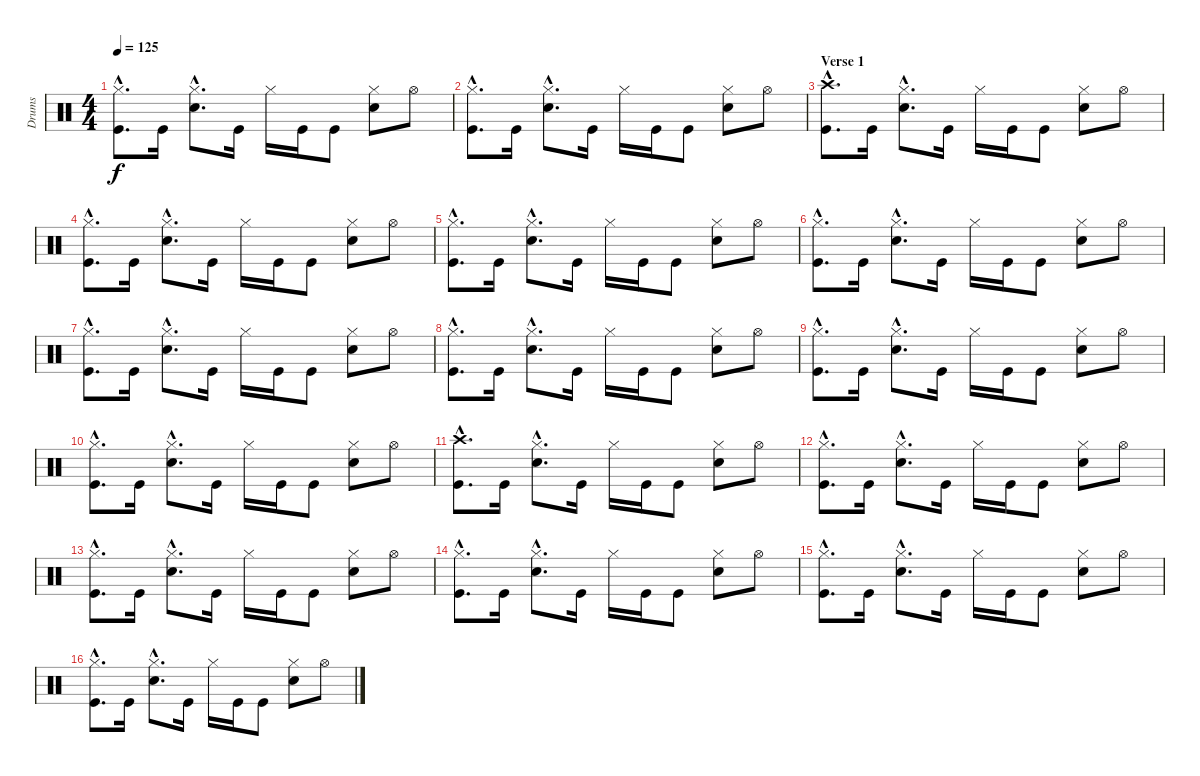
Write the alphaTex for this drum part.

\track ("Drums" "Drums") {instrument percussion}
\staff {score}
\articulation defaults
\ts (4 4)
\tempo 125
\clef neutral
\ks c
("Hi-Hat (closed)"{hac} "Kick (hit)"{hac}).8{d dy f} "Kick (hit)".16 ("Hi-Hat (closed)"{hac} "Electric Snare (hit)"{hac}).8{d} "Kick (hit)".16 "Hi-Hat (closed)".16 "Kick (hit)".16 "Kick (hit)".8 ("Hi-Hat (closed)" "Electric Snare (hit)").8 "Hi-Hat (open)".8 |
("Hi-Hat (closed)"{hac} "Kick (hit)"{hac}).8{d} "Kick (hit)".16 ("Hi-Hat (closed)"{hac} "Electric Snare (hit)"{hac}).8{d} "Kick (hit)".16 "Hi-Hat (closed)".16 "Kick (hit)".16 "Kick (hit)".8 ("Hi-Hat (closed)" "Electric Snare (hit)").8 "Hi-Hat (open)".8 |
\section ("" "Verse 1")
("Crash high (hit)"{hac} "Kick (hit)"{hac}).8{d} "Kick (hit)".16 ("Hi-Hat (closed)"{hac} "Electric Snare (hit)"{hac}).8{d} "Kick (hit)".16 "Hi-Hat (closed)".16 "Kick (hit)".16 "Kick (hit)".8 ("Hi-Hat (closed)" "Electric Snare (hit)").8 "Hi-Hat (open)".8 |
("Hi-Hat (closed)"{hac} "Kick (hit)"{hac}).8{d} "Kick (hit)".16 ("Hi-Hat (closed)"{hac} "Electric Snare (hit)"{hac}).8{d} "Kick (hit)".16 "Hi-Hat (closed)".16 "Kick (hit)".16 "Kick (hit)".8 ("Hi-Hat (closed)" "Electric Snare (hit)").8 "Hi-Hat (open)".8 |
("Hi-Hat (closed)"{hac} "Kick (hit)"{hac}).8{d} "Kick (hit)".16 ("Hi-Hat (closed)"{hac} "Electric Snare (hit)"{hac}).8{d} "Kick (hit)".16 "Hi-Hat (closed)".16 "Kick (hit)".16 "Kick (hit)".8 ("Hi-Hat (closed)" "Electric Snare (hit)").8 "Hi-Hat (open)".8 |
("Hi-Hat (closed)"{hac} "Kick (hit)"{hac}).8{d} "Kick (hit)".16 ("Hi-Hat (closed)"{hac} "Electric Snare (hit)"{hac}).8{d} "Kick (hit)".16 "Hi-Hat (closed)".16 "Kick (hit)".16 "Kick (hit)".8 ("Hi-Hat (closed)" "Electric Snare (hit)").8 "Hi-Hat (open)".8 |
("Hi-Hat (closed)"{hac} "Kick (hit)"{hac}).8{d} "Kick (hit)".16 ("Hi-Hat (closed)"{hac} "Electric Snare (hit)"{hac}).8{d} "Kick (hit)".16 "Hi-Hat (closed)".16 "Kick (hit)".16 "Kick (hit)".8 ("Hi-Hat (closed)" "Electric Snare (hit)").8 "Hi-Hat (open)".8 |
("Hi-Hat (closed)"{hac} "Kick (hit)"{hac}).8{d} "Kick (hit)".16 ("Hi-Hat (closed)"{hac} "Electric Snare (hit)"{hac}).8{d} "Kick (hit)".16 "Hi-Hat (closed)".16 "Kick (hit)".16 "Kick (hit)".8 ("Hi-Hat (closed)" "Electric Snare (hit)").8 "Hi-Hat (open)".8 |
("Hi-Hat (closed)"{hac} "Kick (hit)"{hac}).8{d} "Kick (hit)".16 ("Hi-Hat (closed)"{hac} "Electric Snare (hit)"{hac}).8{d} "Kick (hit)".16 "Hi-Hat (closed)".16 "Kick (hit)".16 "Kick (hit)".8 ("Hi-Hat (closed)" "Electric Snare (hit)").8 "Hi-Hat (open)".8 |
("Hi-Hat (closed)"{hac} "Kick (hit)"{hac}).8{d} "Kick (hit)".16 ("Hi-Hat (closed)"{hac} "Electric Snare (hit)"{hac}).8{d} "Kick (hit)".16 "Hi-Hat (closed)".16 "Kick (hit)".16 "Kick (hit)".8 ("Hi-Hat (closed)" "Electric Snare (hit)").8 "Hi-Hat (open)".8 |
("Crash high (hit)"{hac} "Kick (hit)"{hac}).8{d} "Kick (hit)".16 ("Hi-Hat (closed)"{hac} "Electric Snare (hit)"{hac}).8{d} "Kick (hit)".16 "Hi-Hat (closed)".16 "Kick (hit)".16 "Kick (hit)".8 ("Hi-Hat (closed)" "Electric Snare (hit)").8 "Hi-Hat (open)".8 |
("Hi-Hat (closed)"{hac} "Kick (hit)"{hac}).8{d} "Kick (hit)".16 ("Hi-Hat (closed)"{hac} "Electric Snare (hit)"{hac}).8{d} "Kick (hit)".16 "Hi-Hat (closed)".16 "Kick (hit)".16 "Kick (hit)".8 ("Hi-Hat (closed)" "Electric Snare (hit)").8 "Hi-Hat (open)".8 |
("Hi-Hat (closed)"{hac} "Kick (hit)"{hac}).8{d} "Kick (hit)".16 ("Hi-Hat (closed)"{hac} "Electric Snare (hit)"{hac}).8{d} "Kick (hit)".16 "Hi-Hat (closed)".16 "Kick (hit)".16 "Kick (hit)".8 ("Hi-Hat (closed)" "Electric Snare (hit)").8 "Hi-Hat (open)".8 |
("Hi-Hat (closed)"{hac} "Kick (hit)"{hac}).8{d} "Kick (hit)".16 ("Hi-Hat (closed)"{hac} "Electric Snare (hit)"{hac}).8{d} "Kick (hit)".16 "Hi-Hat (closed)".16 "Kick (hit)".16 "Kick (hit)".8 ("Hi-Hat (closed)" "Electric Snare (hit)").8 "Hi-Hat (open)".8 |
("Hi-Hat (closed)"{hac} "Kick (hit)"{hac}).8{d} "Kick (hit)".16 ("Hi-Hat (closed)"{hac} "Electric Snare (hit)"{hac}).8{d} "Kick (hit)".16 "Hi-Hat (closed)".16 "Kick (hit)".16 "Kick (hit)".8 ("Hi-Hat (closed)" "Electric Snare (hit)").8 "Hi-Hat (open)".8 |
("Hi-Hat (closed)"{hac} "Kick (hit)"{hac}).8{d} "Kick (hit)".16 ("Hi-Hat (closed)"{hac} "Electric Snare (hit)"{hac}).8{d} "Kick (hit)".16 "Hi-Hat (closed)".16 "Kick (hit)".16 "Kick (hit)".8 ("Hi-Hat (closed)" "Electric Snare (hit)").8 "Hi-Hat (open)".8
